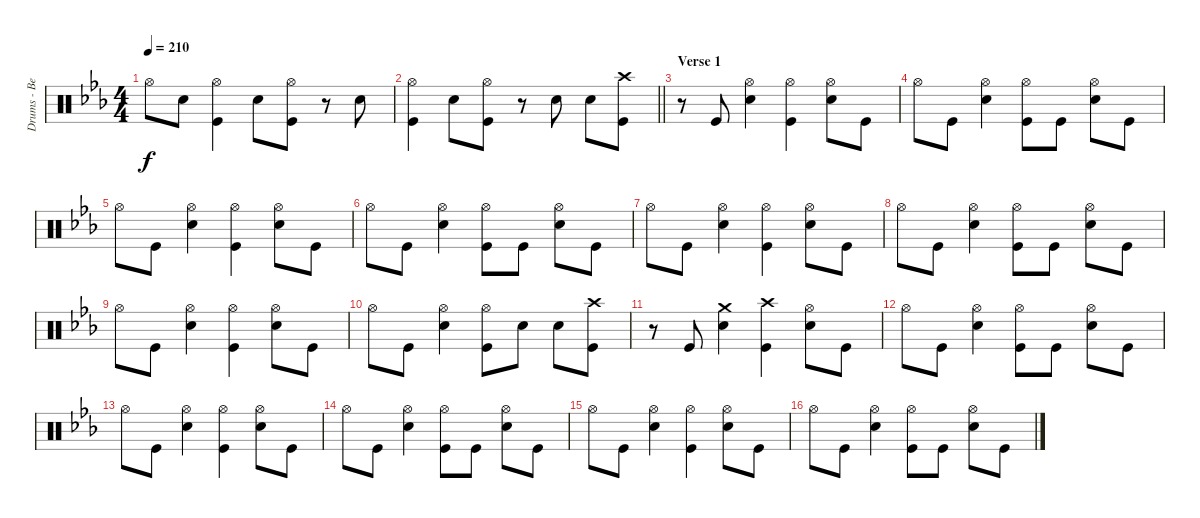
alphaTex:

\track ("Drums - Ben Johnston" "Drums - Be") {instrument percussion}
\staff {score}
\articulation defaults
\ts (4 4)
\tempo 210
\clef neutral
\ks cminor "Hi-Hat (open)".8{dy f} "Snare (hit) 2".8
("Hi-Hat (open)" "Kick (hit)").4 "Snare (hit) 2".8 ("Hi-Hat (open)" "Kick (hit)").8 r.8 "Snare (hit) 2".8 |
\barLineRight lightlight
("Hi-Hat (open)" "Kick (hit)").4 "Snare (hit) 2".8 ("Hi-Hat (open)" "Kick (hit)").8 r.8 "Snare (hit) 2".8 "Snare (hit) 2".8 ("Crash high (hit)" "Kick (hit)").8 |
\section ("" "Verse 1")
r.8 "Kick (hit)".8 ("Hi-Hat (open)" "Snare (hit) 2").4 ("Hi-Hat (open)" "Kick (hit)").4 ("Hi-Hat (open)" "Snare (hit) 2").8 "Kick (hit)".8 |
"Hi-Hat (open)".8 "Kick (hit)".8 ("Hi-Hat (open)" "Snare (hit) 2").4 ("Hi-Hat (open)" "Kick (hit)").8 "Kick (hit)".8 ("Hi-Hat (open)" "Snare (hit) 2").8 "Kick (hit)".8 |
"Hi-Hat (open)".8 "Kick (hit)".8 ("Hi-Hat (open)" "Snare (hit) 2").4 ("Hi-Hat (open)" "Kick (hit)").4 ("Hi-Hat (open)" "Snare (hit) 2").8 "Kick (hit)".8 |
"Hi-Hat (open)".8 "Kick (hit)".8 ("Hi-Hat (open)" "Snare (hit) 2").4 ("Hi-Hat (open)" "Kick (hit)").8 "Kick (hit)".8 ("Hi-Hat (open)" "Snare (hit) 2").8 "Kick (hit)".8 |
"Hi-Hat (open)".8 "Kick (hit)".8 ("Hi-Hat (open)" "Snare (hit) 2").4 ("Hi-Hat (open)" "Kick (hit)").4 ("Hi-Hat (open)" "Snare (hit) 2").8 "Kick (hit)".8 |
"Hi-Hat (open)".8 "Kick (hit)".8 ("Hi-Hat (open)" "Snare (hit) 2").4 ("Hi-Hat (open)" "Kick (hit)").8 "Kick (hit)".8 ("Hi-Hat (open)" "Snare (hit) 2").8 "Kick (hit)".8 |
"Hi-Hat (open)".8 "Kick (hit)".8 ("Hi-Hat (open)" "Snare (hit) 2").4 ("Hi-Hat (open)" "Kick (hit)").4 ("Hi-Hat (open)" "Snare (hit) 2").8 "Kick (hit)".8 |
"Hi-Hat (open)".8 "Kick (hit)".8 ("Hi-Hat (open)" "Snare (hit) 2").4 ("Hi-Hat (open)" "Kick (hit)").8 "Snare (hit) 2".8 "Snare (hit) 2".8 ("Crash high (hit)" "Kick (hit)").8 |
r.8 "Kick (hit)".8 ("Crash medium (hit)" "Snare (hit) 2").4 ("Crash high (hit)" "Kick (hit)").4 ("Hi-Hat (open)" "Snare (hit) 2").8 "Kick (hit)".8 |
"Hi-Hat (open)".8 "Kick (hit)".8 ("Hi-Hat (open)" "Snare (hit) 2").4 ("Hi-Hat (open)" "Kick (hit)").8 "Kick (hit)".8 ("Hi-Hat (open)" "Snare (hit) 2").8 "Kick (hit)".8 |
"Hi-Hat (open)".8 "Kick (hit)".8 ("Hi-Hat (open)" "Snare (hit) 2").4 ("Hi-Hat (open)" "Kick (hit)").4 ("Hi-Hat (open)" "Snare (hit) 2").8 "Kick (hit)".8 |
"Hi-Hat (open)".8 "Kick (hit)".8 ("Hi-Hat (open)" "Snare (hit) 2").4 ("Hi-Hat (open)" "Kick (hit)").8 "Kick (hit)".8 ("Hi-Hat (open)" "Snare (hit) 2").8 "Kick (hit)".8 |
"Hi-Hat (open)".8 "Kick (hit)".8 ("Hi-Hat (open)" "Snare (hit) 2").4 ("Hi-Hat (open)" "Kick (hit)").4 ("Hi-Hat (open)" "Snare (hit) 2").8 "Kick (hit)".8 |
"Hi-Hat (open)".8 "Kick (hit)".8 ("Hi-Hat (open)" "Snare (hit) 2").4 ("Hi-Hat (open)" "Kick (hit)").8 "Kick (hit)".8 ("Hi-Hat (open)" "Snare (hit) 2").8 "Kick (hit)".8
